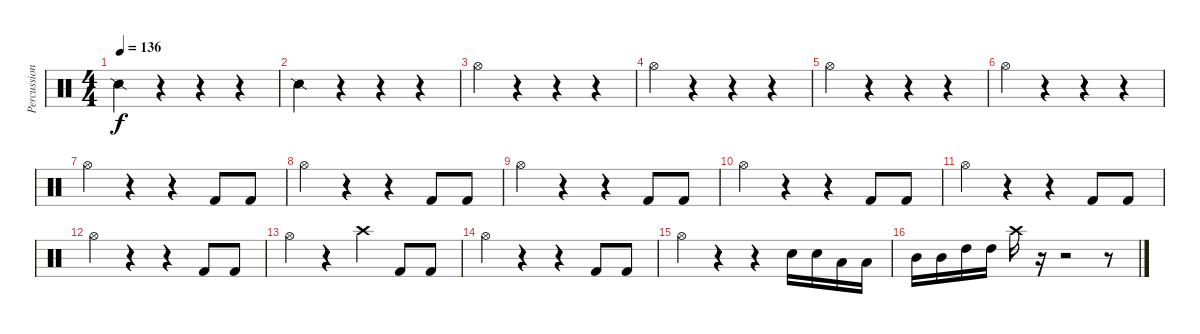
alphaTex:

\track ("Percussion" "Percussion") {instrument percussion}
\staff {score}
\articulation defaults
\ts (4 4)
\tempo 136
\clef neutral
\ks c "Snare (side stick) 2".4{dy f}
r.4 r.4 r.4 |
"Snare (side stick) 2".4 r.4 r.4 r.4 |
"Hi-Hat (open)".4 r.4 r.4 r.4 |
"Hi-Hat (open)".4 r.4 r.4 r.4 |
"Hi-Hat (open)".4 r.4 r.4 r.4 |
"Hi-Hat (open)".4 r.4 r.4 r.4 |
"Hi-Hat (open)".4 r.4 r.4 "Kick (hit) 2".8 "Kick (hit) 2".8 |
"Hi-Hat (open)".4 r.4 r.4 "Kick (hit) 2".8 "Kick (hit) 2".8 |
"Hi-Hat (open)".4 r.4 r.4 "Kick (hit) 2".8 "Kick (hit) 2".8 |
"Hi-Hat (open)".4 r.4 r.4 "Kick (hit) 2".8 "Kick (hit) 2".8 |
"Hi-Hat (open)".4 r.4 r.4 "Kick (hit) 2".8 "Kick (hit) 2".8 |
"Hi-Hat (open)".4 r.4 r.4 "Kick (hit) 2".8 "Kick (hit) 2".8 |
"Hi-Hat (open)".4 r.4 "Crash high (hit)".4 "Kick (hit) 2".8 "Kick (hit) 2".8 |
"Hi-Hat (open)".4 r.4 r.4 "Kick (hit) 2".8 "Kick (hit) 2".8 |
"Hi-Hat (open)".4 r.4 r.4 "Electric Snare (hit)".16 "Electric Snare (hit)".16 "Low Tom (hit)".16 "Low Tom (hit)".16 |
"Mid Tom (hit)".16 "Mid Tom (hit)".16 "High Tom (hit)".16 "High Tom (hit)".16 "Crash high (hit)".16 r.16 r.2 r.8
